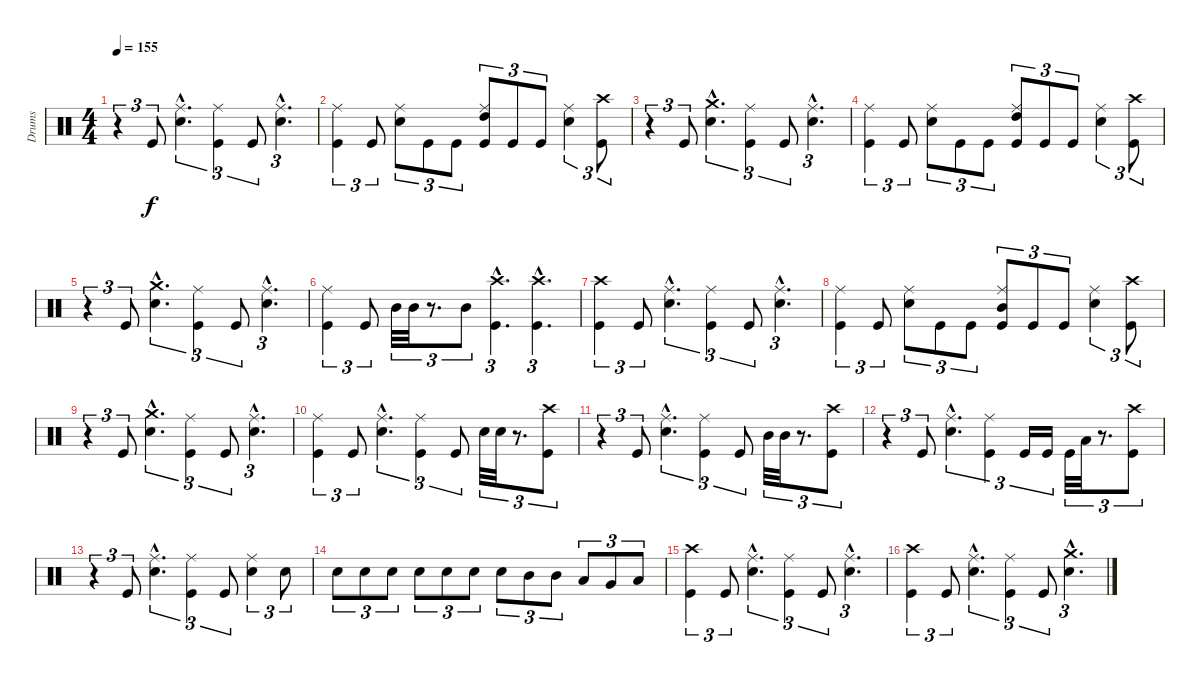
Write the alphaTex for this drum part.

\track ("Drums" "Drums") {instrument percussion}
\staff {score}
\articulation defaults
\ts (4 4)
\tempo 155
\clef neutral
\ks c
r.4{tu (3 2) dy f} "Kick (hit)".8{tu (3 2)} ("Ride (middle)"{hac} "Snare (hit) 2"{hac}).4{d tu (3 2)} ("Ride (middle)" "Kick (hit)").4{tu (3 2)} "Kick (hit)".8{tu (3 2)} ("Ride (middle)"{hac} "Snare (hit) 2"{hac}).4{d tu (3 2)} |
("Ride (middle)" "Kick (hit)").4{tu (3 2)} "Kick (hit)".8{tu (3 2)} ("Ride (middle)" "Snare (hit) 2").8{tu (3 2)} "Kick (hit)".8{tu (3 2)} "Kick (hit)".8{tu (3 2)} ("Ride (middle)" "Kick (hit)" "High Tom (hit)").8{tu (3 2)} "Kick (hit)".8{tu (3 2)} "Kick (hit)".8{tu (3 2)} ("Ride (middle)" "Snare (hit) 2").4{tu (3 2)} ("Crash high (hit)" "Kick (hit)").8{tu (3 2)} |
r.4{tu (3 2)} "Kick (hit)".8{tu (3 2)} ("Crash medium (hit)"{hac} "Snare (hit) 2"{hac}).4{d tu (3 2)} ("Ride (middle)" "Kick (hit)").4{tu (3 2)} "Kick (hit)".8{tu (3 2)} ("Ride (middle)"{hac} "Snare (hit) 2"{hac}).4{d tu (3 2)} |
("Ride (middle)" "Kick (hit)").4{tu (3 2)} "Kick (hit)".8{tu (3 2)} ("Ride (middle)" "Snare (hit) 2").8{tu (3 2)} "Kick (hit)".8{tu (3 2)} "Kick (hit)".8{tu (3 2)} ("Ride (middle)" "Kick (hit)" "High Tom (hit)").8{tu (3 2)} "Kick (hit)".8{tu (3 2)} "Kick (hit)".8{tu (3 2)} ("Ride (middle)" "Snare (hit) 2").4{tu (3 2)} ("Crash high (hit)" "Kick (hit)").8{tu (3 2)} |
r.4{tu (3 2)} "Kick (hit)".8{tu (3 2)} ("Crash medium (hit)"{hac} "Snare (hit) 2"{hac}).4{d tu (3 2)} ("Ride (middle)" "Kick (hit)").4{tu (3 2)} "Kick (hit)".8{tu (3 2)} ("Ride (middle)"{hac} "Snare (hit) 2"{hac}).4{d tu (3 2)} |
("Ride (middle)" "Kick (hit)").4{tu (3 2)} "Kick (hit)".8{tu (3 2)} "Mid Tom (hit)".32{tu (3 2)} "Mid Tom (hit)".32{tu (3 2)} r.8{d tu (3 2)} "Mid Tom (hit)".8{tu (3 2)} ("Crash high (hit)"{hac} "Kick (hit)"{hac}).4{d tu (3 2)} ("Crash high (hit)"{hac} "Kick (hit)"{hac}).4{d tu (3 2)} |
("Crash high (hit)" "Kick (hit)").4{tu (3 2)} "Kick (hit)".8{tu (3 2)} ("Ride (middle)"{hac} "Snare (hit) 2"{hac}).4{d tu (3 2)} ("Ride (middle)" "Kick (hit)").4{tu (3 2)} "Kick (hit)".8{tu (3 2)} ("Ride (middle)"{hac} "Snare (hit) 2"{hac}).4{d tu (3 2)} |
("Ride (middle)" "Kick (hit)").4{tu (3 2)} "Kick (hit)".8{tu (3 2)} ("Ride (middle)" "Snare (hit) 2").8{tu (3 2)} "Kick (hit)".8{tu (3 2)} "Kick (hit)".8{tu (3 2)} ("Ride (middle)" "Kick (hit)" "Mid Tom (hit)").8{tu (3 2)} "Kick (hit)".8{tu (3 2)} "Kick (hit)".8{tu (3 2)} ("Ride (middle)" "Snare (hit) 2").4{tu (3 2)} ("Crash high (hit)" "Kick (hit)").8{tu (3 2)} |
r.4{tu (3 2)} "Kick (hit)".8{tu (3 2)} ("Crash medium (hit)"{hac} "Snare (hit) 2"{hac}).4{d tu (3 2)} ("Ride (middle)" "Kick (hit)").4{tu (3 2)} "Kick (hit)".8{tu (3 2)} ("Ride (middle)"{hac} "Snare (hit) 2"{hac}).4{d tu (3 2)} |
("Ride (middle)" "Kick (hit)").4{tu (3 2)} "Kick (hit)".8{tu (3 2)} ("Ride (middle)"{hac} "Snare (hit) 2"{hac}).4{d tu (3 2)} ("Ride (middle)" "Kick (hit)").4{tu (3 2)} "Kick (hit)".8{tu (3 2)} "Snare (hit) 2".32{tu (3 2)} "Snare (hit) 2".32{tu (3 2)} r.8{d tu (3 2)} ("Crash high (hit)" "Kick (hit)").8{tu (3 2)} |
r.4{tu (3 2)} "Kick (hit)".8{tu (3 2)} ("Ride (middle)"{hac} "Snare (hit) 2"{hac}).4{d tu (3 2)} ("Ride (middle)" "Kick (hit)").4{tu (3 2)} "Kick (hit)".8{tu (3 2)} "Mid Tom (hit)".32{tu (3 2)} "Mid Tom (hit)".32{tu (3 2)} r.8{d tu (3 2)} ("Crash high (hit)" "Kick (hit)").8{tu (3 2)} |
r.4{tu (3 2)} "Kick (hit)".8{tu (3 2)} ("Ride (middle)"{hac} "Snare (hit) 2"{hac}).4{d tu (3 2)} ("Ride (middle)" "Kick (hit)").4{tu (3 2)} "Kick (hit)".16{tu (3 2)} "Kick (hit)".16{tu (3 2)} "Kick (hit)".32{tu (3 2)} "Low Tom (hit)".32{tu (3 2)} r.8{d tu (3 2)} ("Crash high (hit)" "Kick (hit)").8{tu (3 2)} |
r.4{tu (3 2)} "Kick (hit)".8{tu (3 2)} ("Ride (middle)"{hac} "Snare (hit) 2"{hac}).4{d tu (3 2)} ("Ride (middle)" "Kick (hit)").4{tu (3 2)} "Kick (hit)".8{tu (3 2)} ("Ride (middle)" "Snare (hit) 2").4{tu (3 2)} "Snare (hit) 2".8{tu (3 2)} |
"Snare (hit) 2".8{tu (3 2)} "Snare (hit) 2".8{tu (3 2)} "Snare (hit) 2".8{tu (3 2)} "Snare (hit) 2".8{tu (3 2)} "Snare (hit) 2".8{tu (3 2)} "Snare (hit) 2".8{tu (3 2)} "Snare (hit) 2".8{tu (3 2)} "Mid Tom (hit)".8{tu (3 2)} "Mid Tom (hit)".8{tu (3 2)} "Low Tom (hit)".8{tu (3 2)} "Very Low Tom (hit)".8{tu (3 2)} "Low Floor Tom (hit)".8{tu (3 2)} |
("Crash high (hit)" "Kick (hit)").4{tu (3 2)} "Kick (hit)".8{tu (3 2)} ("Ride (middle)"{hac} "Snare (hit) 2"{hac}).4{d tu (3 2)} ("Ride (middle)" "Kick (hit)").4{tu (3 2)} "Kick (hit)".8{tu (3 2)} ("Ride (middle)"{hac} "Snare (hit) 2"{hac}).4{d tu (3 2)} |
("Crash high (hit)" "Kick (hit)").4{tu (3 2)} "Kick (hit)".8{tu (3 2)} ("Ride (middle)"{hac} "Snare (hit) 2"{hac}).4{d tu (3 2)} ("Ride (middle)" "Kick (hit)").4{tu (3 2)} "Kick (hit)".8{tu (3 2)} ("Crash medium (hit)"{hac} "Snare (hit) 2"{hac}).4{d tu (3 2)}
